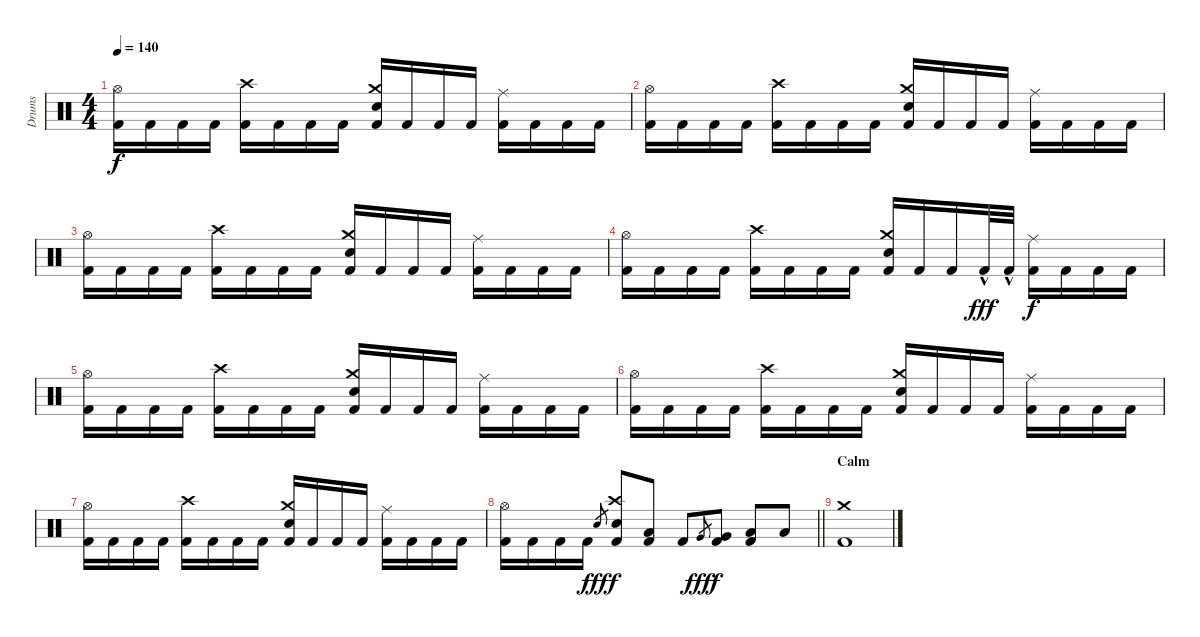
\track ("Drums" "Drums") {instrument percussion}
\staff {score}
\articulation defaults
\ts (4 4)
\tempo 140
\clef neutral
\ks c
("Hi-Hat (open)" "Kick (hit) 2").16{dy f} "Kick (hit) 2".16 "Kick (hit) 2".16 "Kick (hit) 2".16 ("Crash high (hit)" "Kick (hit) 2").16 "Kick (hit) 2".16 "Kick (hit) 2".16 "Kick (hit) 2".16 ("Crash medium (hit)" "Electric Snare (hit)" "Kick (hit) 2").16 "Kick (hit) 2".16 "Kick (hit) 2".16 "Kick (hit) 2".16 ("Ride (middle)" "Kick (hit) 2").16 "Kick (hit) 2".16 "Kick (hit) 2".16 "Kick (hit) 2".16 |
("Hi-Hat (open)" "Kick (hit) 2").16 "Kick (hit) 2".16 "Kick (hit) 2".16 "Kick (hit) 2".16 ("Crash high (hit)" "Kick (hit) 2").16 "Kick (hit) 2".16 "Kick (hit) 2".16 "Kick (hit) 2".16 ("Crash medium (hit)" "Electric Snare (hit)" "Kick (hit) 2").16 "Kick (hit) 2".16 "Kick (hit) 2".16 "Kick (hit) 2".16 ("Ride (middle)" "Kick (hit) 2").16 "Kick (hit) 2".16 "Kick (hit) 2".16 "Kick (hit) 2".16 |
("Hi-Hat (open)" "Kick (hit) 2").16 "Kick (hit) 2".16 "Kick (hit) 2".16 "Kick (hit) 2".16 ("Crash high (hit)" "Kick (hit) 2").16 "Kick (hit) 2".16 "Kick (hit) 2".16 "Kick (hit) 2".16 ("Crash medium (hit)" "Electric Snare (hit)" "Kick (hit) 2").16 "Kick (hit) 2".16 "Kick (hit) 2".16 "Kick (hit) 2".16 ("Ride (middle)" "Kick (hit) 2").16 "Kick (hit) 2".16 "Kick (hit) 2".16 "Kick (hit) 2".16 |
("Hi-Hat (open)" "Kick (hit) 2").16 "Kick (hit) 2".16 "Kick (hit) 2".16 "Kick (hit) 2".16 ("Crash high (hit)" "Kick (hit) 2").16 "Kick (hit) 2".16 "Kick (hit) 2".16 "Kick (hit) 2".16 ("Crash medium (hit)" "Electric Snare (hit)" "Kick (hit) 2").16 "Kick (hit) 2".16 "Kick (hit) 2".16 "Kick (hit) 2"{hac}.32{dy fff} "Kick (hit) 2"{hac}.32 ("Ride (middle)" "Kick (hit) 2").16{dy f} "Kick (hit) 2".16 "Kick (hit) 2".16 "Kick (hit) 2".16 |
("Hi-Hat (open)" "Kick (hit) 2").16 "Kick (hit) 2".16 "Kick (hit) 2".16 "Kick (hit) 2".16 ("Crash high (hit)" "Kick (hit) 2").16 "Kick (hit) 2".16 "Kick (hit) 2".16 "Kick (hit) 2".16 ("Crash medium (hit)" "Electric Snare (hit)" "Kick (hit) 2").16 "Kick (hit) 2".16 "Kick (hit) 2".16 "Kick (hit) 2".16 ("Ride (middle)" "Kick (hit) 2").16 "Kick (hit) 2".16 "Kick (hit) 2".16 "Kick (hit) 2".16 |
("Hi-Hat (open)" "Kick (hit) 2").16 "Kick (hit) 2".16 "Kick (hit) 2".16 "Kick (hit) 2".16 ("Crash high (hit)" "Kick (hit) 2").16 "Kick (hit) 2".16 "Kick (hit) 2".16 "Kick (hit) 2".16 ("Crash medium (hit)" "Electric Snare (hit)" "Kick (hit) 2").16 "Kick (hit) 2".16 "Kick (hit) 2".16 "Kick (hit) 2".16 ("Ride (middle)" "Kick (hit) 2").16 "Kick (hit) 2".16 "Kick (hit) 2".16 "Kick (hit) 2".16 |
("Hi-Hat (open)" "Kick (hit) 2").16 "Kick (hit) 2".16 "Kick (hit) 2".16 "Kick (hit) 2".16 ("Crash high (hit)" "Kick (hit) 2").16 "Kick (hit) 2".16 "Kick (hit) 2".16 "Kick (hit) 2".16 ("Crash medium (hit)" "Electric Snare (hit)" "Kick (hit) 2").16 "Kick (hit) 2".16 "Kick (hit) 2".16 "Kick (hit) 2".16 ("Ride (middle)" "Kick (hit) 2").16 "Kick (hit) 2".16 "Kick (hit) 2".16 "Kick (hit) 2".16 |
\barLineRight lightlight
("Hi-Hat (open)" "Kick (hit) 2").16 "Kick (hit) 2".16 "Kick (hit) 2".16 "Kick (hit) 2".16 "Electric Snare (hit)".8{gr dy fff} ("Crash high (hit)" "Electric Snare (hit)" "Kick (hit) 2").8{dy f} ("Low Tom (hit)" "Kick (hit) 2").8 "Kick (hit) 2".8 "Very Low Tom (hit)".8{gr dy fff} ("Very Low Tom (hit)" "Kick (hit) 2").8{dy f} ("Low Floor Tom (hit)" "Kick (hit) 2").8 "Low Tom (hit)".8 |
\section ("" "Calm")
("Crash medium (hit)" "Kick (hit) 2").1
